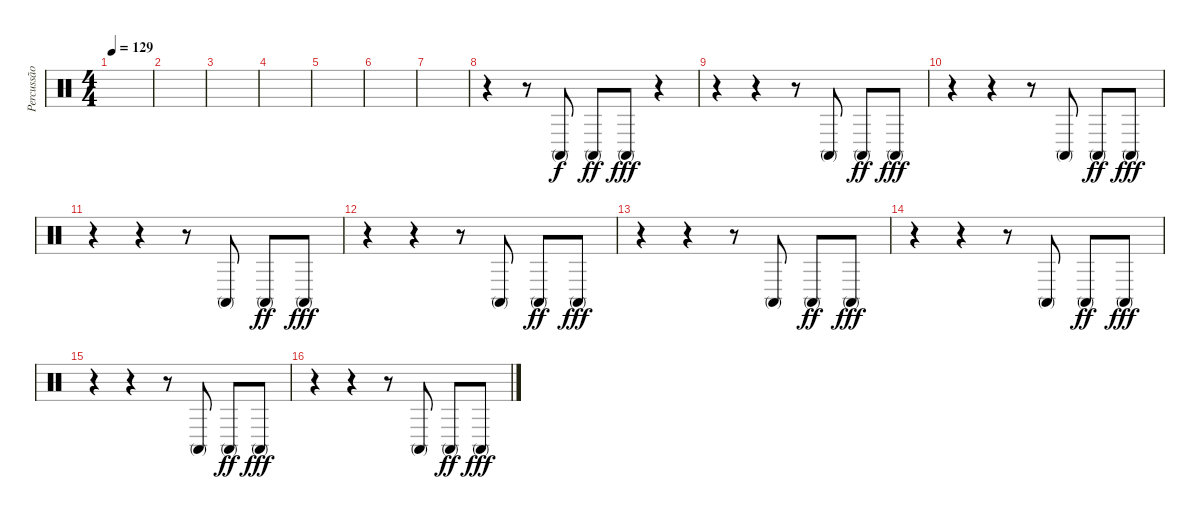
\track ("Percussão" "Percussão") {instrument percussion}
\staff {score}
\articulation defaults
\ts (4 4)
\tempo 129
\clef neutral
\ks c
|
|
|
|
|
|
|
r.4{volume 16} r.8 "Conga high (mute)".8 "Conga high (mute)".8{dy ff} "Conga high (mute)".8{dy fff} r.4 |
r.4 r.4 r.8 "Conga high (mute)".8 "Conga high (mute)".8{dy ff} "Conga high (mute)".8{dy fff} |
r.4 r.4 r.8 "Conga high (mute)".8 "Conga high (mute)".8{dy ff} "Conga high (mute)".8{dy fff} |
r.4 r.4 r.8 "Conga high (mute)".8 "Conga high (mute)".8{dy ff} "Conga high (mute)".8{dy fff} |
r.4 r.4 r.8 "Conga high (mute)".8 "Conga high (mute)".8{dy ff} "Conga high (mute)".8{dy fff} |
r.4 r.4 r.8 "Conga high (mute)".8 "Conga high (mute)".8{dy ff} "Conga high (mute)".8{dy fff} |
r.4 r.4 r.8 "Conga high (mute)".8 "Conga high (mute)".8{dy ff} "Conga high (mute)".8{dy fff} |
r.4 r.4 r.8 "Conga high (mute)".8 "Conga high (mute)".8{dy ff} "Conga high (mute)".8{dy fff} |
r.4 r.4 r.8 "Conga high (mute)".8 "Conga high (mute)".8{dy ff} "Conga high (mute)".8{dy fff}
